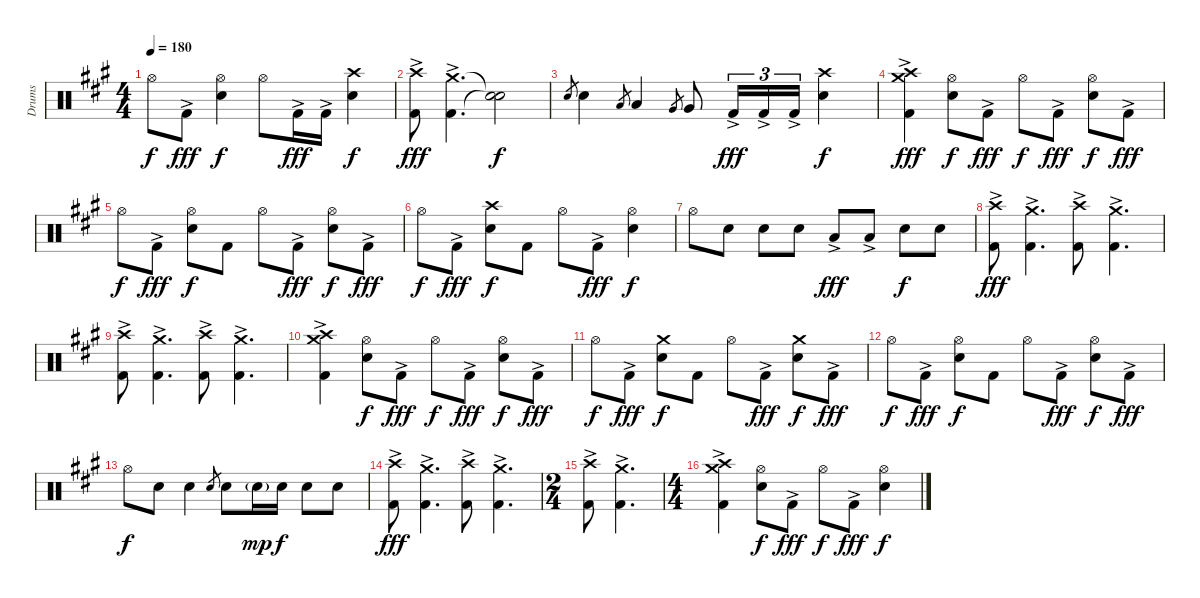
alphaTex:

\track ("Drums" "Drums") {instrument percussion}
\staff {score}
\articulation defaults
\ts (4 4)
\tempo 180
\clef neutral
\ks f#minor "Hi-Hat (open)".8{dy f} "Kick (hit) 2"{ac}.8{dy fff}
("Hi-Hat (open)" "Snare (hit) 2").4{dy f} "Hi-Hat (open)".8 "Kick (hit) 2"{ac}.16{dy fff} "Kick (hit) 2"{ac}.16 ("Crash high (hit)" "Snare (hit) 2").4{dy f} |
("Crash high (hit)" "Kick (hit) 2"{ac}).8{dy fff} ("Crash medium (hit)" "Kick (hit) 2"{ac}).4{d} ("Snare (hit)"{t} "Snare (hit)"{t}).2{dy f} |
"Snare (hit) 2".8{gr} "Snare (hit) 2".4 "Low Tom (hit)".8{gr} "Low Tom (hit)".4 "Very Low Tom (hit)".8{gr} "Very Low Tom (hit)".8 "Kick (hit) 2"{ac}.16{tu (3 2) dy fff} "Kick (hit) 2"{ac}.16{tu (3 2)} "Kick (hit) 2"{ac}.16{tu (3 2)} ("Crash high (hit)" "Snare (hit) 2").4{dy f} |
("Crash high (hit)" "Crash medium (hit)" "Kick (hit) 2"{ac}).4{dy fff} ("Hi-Hat (open)" "Snare (hit) 2").8{dy f} "Kick (hit) 2"{ac}.8{dy fff} "Hi-Hat (open)".8{dy f} "Kick (hit) 2"{ac}.8{dy fff} ("Hi-Hat (open)" "Snare (hit) 2").8{dy f} "Kick (hit) 2"{ac}.8{dy fff} |
"Hi-Hat (open)".8{dy f} "Kick (hit) 2"{ac}.8{dy fff} ("Hi-Hat (open)" "Snare (hit) 2").8{dy f} "Kick (hit) 2".8 "Hi-Hat (open)".8 "Kick (hit) 2"{ac}.8{dy fff} ("Hi-Hat (open)" "Snare (hit) 2").8{dy f} "Kick (hit) 2"{ac}.8{dy fff} |
"Hi-Hat (open)".8{dy f} "Kick (hit) 2"{ac}.8{dy fff} ("Crash high (hit)" "Snare (hit) 2").8{dy f} "Kick (hit) 2".8 "Hi-Hat (open)".8 "Kick (hit) 2"{ac}.8{dy fff} ("Hi-Hat (open)" "Snare (hit) 2").4{dy f} |
"Hi-Hat (open)".8 "Snare (hit) 2".8 "Snare (hit) 2".8 "Snare (hit) 2".8 "Low Tom (hit)"{ac}.8{dy fff} "Low Tom (hit)"{ac}.8 "Snare (hit) 2".8{dy f} "Snare (hit) 2".8 |
("Crash high (hit)" "Kick (hit) 2"{ac}).8{dy fff} ("Crash medium (hit)" "Kick (hit) 2"{ac}).4{d} ("Crash high (hit)" "Kick (hit) 2"{ac}).8 ("Crash medium (hit)" "Kick (hit) 2"{ac}).4{d} |
("Crash high (hit)" "Kick (hit) 2"{ac}).8 ("Crash medium (hit)" "Kick (hit) 2"{ac}).4{d} ("Crash high (hit)" "Kick (hit) 2"{ac}).8 ("Crash medium (hit)" "Kick (hit) 2"{ac}).4{d} |
("Crash high (hit)" "Crash medium (hit)" "Kick (hit) 2"{ac}).4 ("Hi-Hat (open)" "Snare (hit) 2").8{dy f} "Kick (hit) 2"{ac}.8{dy fff} "Hi-Hat (open)".8{dy f} "Kick (hit) 2"{ac}.8{dy fff} ("Hi-Hat (open)" "Snare (hit) 2").8{dy f} "Kick (hit) 2"{ac}.8{dy fff} |
"Hi-Hat (open)".8{dy f} "Kick (hit) 2"{ac}.8{dy fff} ("Crash medium (hit)" "Snare (hit) 2").8{dy f} "Kick (hit) 2".8 "Hi-Hat (open)".8 "Kick (hit) 2"{ac}.8{dy fff} ("Crash medium (hit)" "Snare (hit) 2").8{dy f} "Kick (hit) 2"{ac}.8{dy fff} |
"Hi-Hat (open)".8{dy f} "Kick (hit) 2"{ac}.8{dy fff} ("Hi-Hat (open)" "Snare (hit) 2").8{dy f} "Kick (hit) 2".8 "Hi-Hat (open)".8 "Kick (hit) 2"{ac}.8{dy fff} ("Hi-Hat (open)" "Snare (hit) 2").8{dy f} "Kick (hit) 2"{ac}.8{dy fff} |
"Hi-Hat (open)".8{dy f} "Snare (hit) 2".8 "Snare (hit) 2".4 "Snare (hit) 2".8{gr} "Snare (hit) 2".8 "Snare (hit) 2"{g}.16{dy mp} "Snare (hit) 2".16{dy f} "Snare (hit) 2".8 "Snare (hit) 2".8 |
("Crash high (hit)" "Kick (hit) 2"{ac}).8{dy fff} ("Crash medium (hit)" "Kick (hit) 2"{ac}).4{d} ("Crash high (hit)" "Kick (hit) 2"{ac}).8 ("Crash medium (hit)" "Kick (hit) 2"{ac}).4{d} |
\ts (2 4)
("Crash high (hit)" "Kick (hit) 2"{ac}).8 ("Crash medium (hit)" "Kick (hit) 2"{ac}).4{d} |
\ts (4 4)
("Crash high (hit)" "Crash medium (hit)" "Kick (hit) 2"{ac}).4 ("Hi-Hat (open)" "Snare (hit) 2").8{dy f} "Kick (hit) 2"{ac}.8{dy fff} "Hi-Hat (open)".8{dy f} "Kick (hit) 2"{ac}.8{dy fff} ("Hi-Hat (open)" "Snare (hit) 2").4{dy f}
